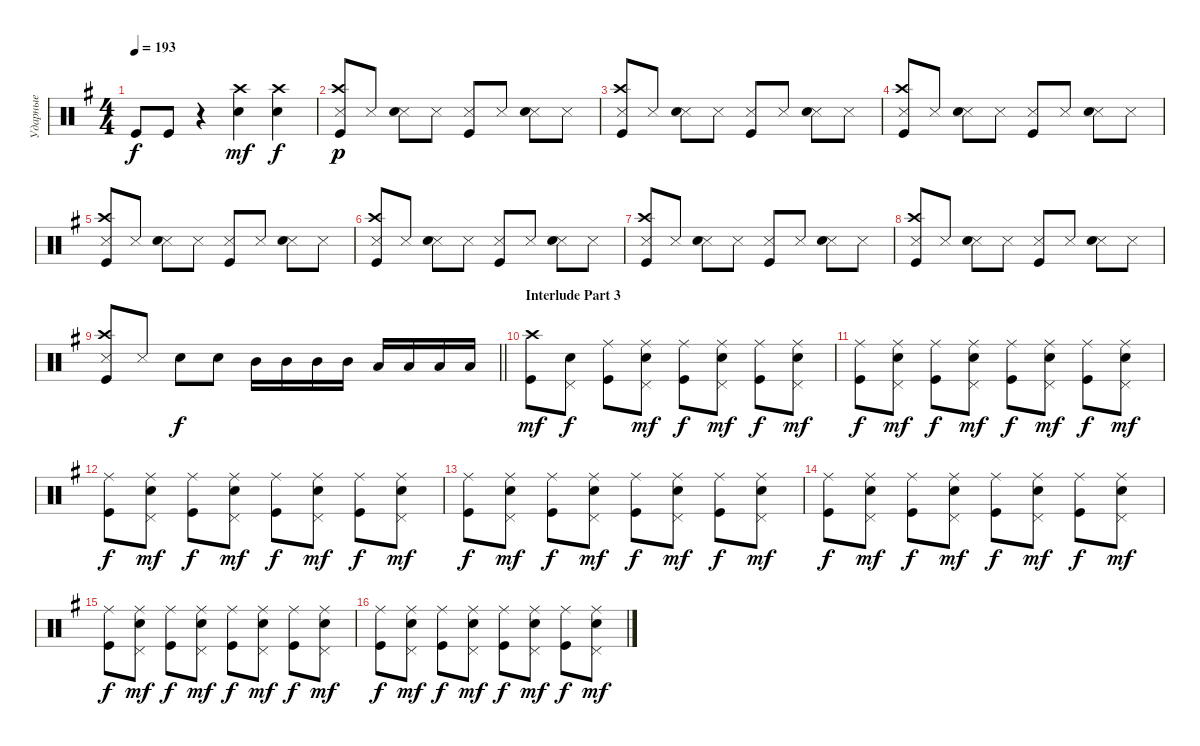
\track ("Ударные" "Ударные") {instrument percussion}
\staff {score}
\articulation defaults
\ts (4 4)
\tempo 193
\clef neutral
\ks eminor "Kick (hit)".8{dy f} "Kick (hit)".8
r.4 ("Snare (hit) 2" "Crash high (hit)").4{dy mf} ("Snare (hit) 2" "Crash high (hit)").4{dy f} |
("Kick (hit)" "Crash high (hit)" "Snare (side stick) 3").8{dy p} "Snare (side stick) 3".8 ("Snare (side stick) 3" "Snare (hit) 2").8 "Snare (side stick) 3".8 ("Kick (hit)" "Snare (side stick) 3").8 "Snare (side stick) 3".8 ("Snare (side stick) 3" "Snare (hit) 2").8 "Snare (side stick) 3".8 |
("Kick (hit)" "Crash high (hit)" "Snare (side stick) 3").8 "Snare (side stick) 3".8 ("Snare (side stick) 3" "Snare (hit) 2").8 "Snare (side stick) 3".8 ("Kick (hit)" "Snare (side stick) 3").8 "Snare (side stick) 3".8 ("Snare (side stick) 3" "Snare (hit) 2").8 "Snare (side stick) 3".8 |
("Kick (hit)" "Crash high (hit)" "Snare (side stick) 3").8 "Snare (side stick) 3".8 ("Snare (side stick) 3" "Snare (hit) 2").8 "Snare (side stick) 3".8 ("Kick (hit)" "Snare (side stick) 3").8 "Snare (side stick) 3".8 ("Snare (side stick) 3" "Snare (hit) 2").8 "Snare (side stick) 3".8 |
("Kick (hit)" "Crash high (hit)" "Snare (side stick) 3").8 "Snare (side stick) 3".8 ("Snare (side stick) 3" "Snare (hit) 2").8 "Snare (side stick) 3".8 ("Kick (hit)" "Snare (side stick) 3").8 "Snare (side stick) 3".8 ("Snare (side stick) 3" "Snare (hit) 2").8 "Snare (side stick) 3".8 |
("Kick (hit)" "Crash high (hit)" "Snare (side stick) 3").8 "Snare (side stick) 3".8 ("Snare (side stick) 3" "Snare (hit) 2").8 "Snare (side stick) 3".8 ("Kick (hit)" "Snare (side stick) 3").8 "Snare (side stick) 3".8 ("Snare (side stick) 3" "Snare (hit) 2").8 "Snare (side stick) 3".8 |
("Kick (hit)" "Crash high (hit)" "Snare (side stick) 3").8 "Snare (side stick) 3".8 ("Snare (side stick) 3" "Snare (hit) 2").8 "Snare (side stick) 3".8 ("Kick (hit)" "Snare (side stick) 3").8 "Snare (side stick) 3".8 ("Snare (side stick) 3" "Snare (hit) 2").8 "Snare (side stick) 3".8 |
("Kick (hit)" "Crash high (hit)" "Snare (side stick) 3").8 "Snare (side stick) 3".8 ("Snare (side stick) 3" "Snare (hit) 2").8 "Snare (side stick) 3".8 ("Kick (hit)" "Snare (side stick) 3").8 "Snare (side stick) 3".8 ("Snare (side stick) 3" "Snare (hit) 2").8 "Snare (side stick) 3".8 |
\barLineRight lightlight
("Kick (hit)" "Crash high (hit)" "Snare (side stick) 3").8 "Snare (side stick) 3".8 "Snare (hit) 2".8{dy f} "Snare (hit) 2".8 "Mid Tom (hit)".16 "Mid Tom (hit)".16 "Mid Tom (hit)".16 "Mid Tom (hit)".16 "Low Tom (hit)".16 "Low Tom (hit)".16 "Low Tom (hit)".16 "Low Tom (hit)".16 |
\section ("" "Interlude Part 3")
("Kick (hit)" "Crash high (hit)").8{dy mf} ("Snare (hit) 2" "Pedal Hi-Hat (hit)").8{dy f} ("Ride (middle)" "Kick (hit)").8 ("Snare (hit) 2" "Pedal Hi-Hat (hit)" "Ride (middle)").8{dy mf} ("Kick (hit)" "Ride (middle)").8{dy f} ("Snare (hit) 2" "Pedal Hi-Hat (hit)" "Ride (middle)").8{dy mf} ("Kick (hit)" "Ride (middle)").8{dy f} ("Snare (hit) 2" "Pedal Hi-Hat (hit)" "Ride (middle)").8{dy mf} |
("Kick (hit)" "Ride (middle)").8{dy f} ("Snare (hit) 2" "Pedal Hi-Hat (hit)" "Ride (middle)").8{dy mf} ("Ride (middle)" "Kick (hit)").8{dy f} ("Snare (hit) 2" "Pedal Hi-Hat (hit)" "Ride (middle)").8{dy mf} ("Kick (hit)" "Ride (middle)").8{dy f} ("Snare (hit) 2" "Pedal Hi-Hat (hit)" "Ride (middle)").8{dy mf} ("Kick (hit)" "Ride (middle)").8{dy f} ("Snare (hit) 2" "Pedal Hi-Hat (hit)" "Ride (middle)").8{dy mf} |
("Kick (hit)" "Ride (middle)").8{dy f} ("Snare (hit) 2" "Pedal Hi-Hat (hit)" "Ride (middle)").8{dy mf} ("Ride (middle)" "Kick (hit)").8{dy f} ("Snare (hit) 2" "Pedal Hi-Hat (hit)" "Ride (middle)").8{dy mf} ("Kick (hit)" "Ride (middle)").8{dy f} ("Snare (hit) 2" "Pedal Hi-Hat (hit)" "Ride (middle)").8{dy mf} ("Kick (hit)" "Ride (middle)").8{dy f} ("Snare (hit) 2" "Pedal Hi-Hat (hit)" "Ride (middle)").8{dy mf} |
("Kick (hit)" "Ride (middle)").8{dy f} ("Snare (hit) 2" "Pedal Hi-Hat (hit)" "Ride (middle)").8{dy mf} ("Ride (middle)" "Kick (hit)").8{dy f} ("Snare (hit) 2" "Pedal Hi-Hat (hit)" "Ride (middle)").8{dy mf} ("Kick (hit)" "Ride (middle)").8{dy f} ("Snare (hit) 2" "Pedal Hi-Hat (hit)" "Ride (middle)").8{dy mf} ("Kick (hit)" "Ride (middle)").8{dy f} ("Snare (hit) 2" "Pedal Hi-Hat (hit)" "Ride (middle)").8{dy mf} |
("Kick (hit)" "Ride (middle)").8{dy f} ("Snare (hit) 2" "Pedal Hi-Hat (hit)" "Ride (middle)").8{dy mf} ("Ride (middle)" "Kick (hit)").8{dy f} ("Snare (hit) 2" "Pedal Hi-Hat (hit)" "Ride (middle)").8{dy mf} ("Kick (hit)" "Ride (middle)").8{dy f} ("Snare (hit) 2" "Pedal Hi-Hat (hit)" "Ride (middle)").8{dy mf} ("Kick (hit)" "Ride (middle)").8{dy f} ("Snare (hit) 2" "Pedal Hi-Hat (hit)" "Ride (middle)").8{dy mf} |
("Kick (hit)" "Ride (middle)").8{dy f} ("Snare (hit) 2" "Pedal Hi-Hat (hit)" "Ride (middle)").8{dy mf} ("Ride (middle)" "Kick (hit)").8{dy f} ("Snare (hit) 2" "Pedal Hi-Hat (hit)" "Ride (middle)").8{dy mf} ("Kick (hit)" "Ride (middle)").8{dy f} ("Snare (hit) 2" "Pedal Hi-Hat (hit)" "Ride (middle)").8{dy mf} ("Kick (hit)" "Ride (middle)").8{dy f} ("Snare (hit) 2" "Pedal Hi-Hat (hit)" "Ride (middle)").8{dy mf} |
("Kick (hit)" "Ride (middle)").8{dy f} ("Snare (hit) 2" "Pedal Hi-Hat (hit)" "Ride (middle)").8{dy mf} ("Ride (middle)" "Kick (hit)").8{dy f} ("Snare (hit) 2" "Pedal Hi-Hat (hit)" "Ride (middle)").8{dy mf} ("Kick (hit)" "Ride (middle)").8{dy f} ("Snare (hit) 2" "Pedal Hi-Hat (hit)" "Ride (middle)").8{dy mf} ("Kick (hit)" "Ride (middle)").8{dy f} ("Snare (hit) 2" "Pedal Hi-Hat (hit)" "Ride (middle)").8{dy mf}
